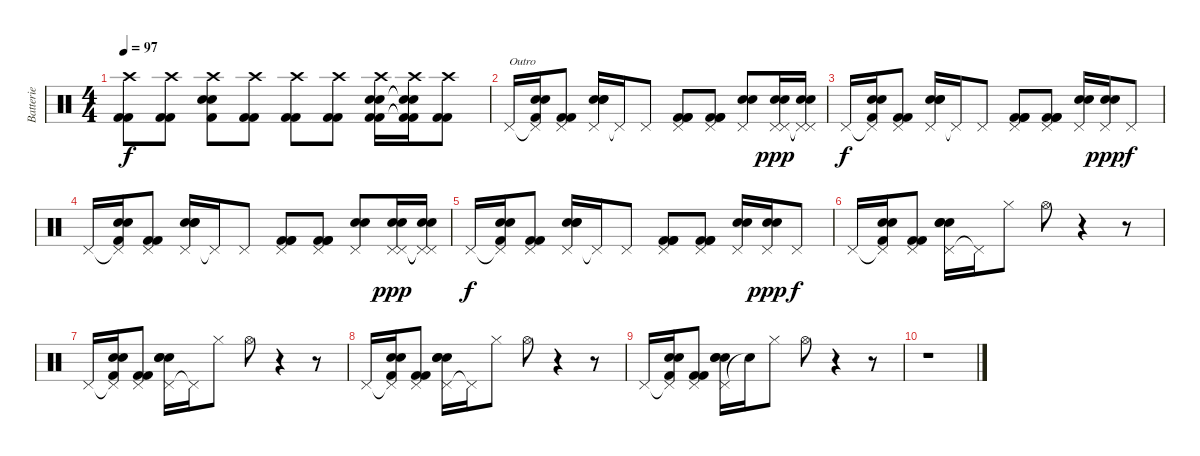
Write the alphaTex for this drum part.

\track ("Batterie" "Batterie") {instrument percussion}
\staff {score}
\articulation defaults
\ts (4 4)
\tempo 97
\clef neutral
\ks c
("Crash high (hit)" "Kick (hit) 2" "Kick (hit) 2").8{dy f} ("Crash high (hit)" "Kick (hit) 2" "Kick (hit) 2").8 ("Crash high (hit)" "Snare (hit) 2" "Snare (hit) 2" "Kick (hit) 2").8 ("Crash high (hit)" "Kick (hit) 2" "Kick (hit) 2").8 ("Crash high (hit)" "Kick (hit) 2" "Kick (hit) 2").8 ("Crash high (hit)" "Kick (hit) 2" "Kick (hit) 2").8 ("Crash high (hit)" "Snare (hit) 2" "Snare (hit) 2" "Kick (hit) 2" "Kick (hit) 2").16 ("Crash high (hit)" "Snare (hit) 2"{t} "Snare (hit) 2"{t} "Kick (hit) 2"{t} "Kick (hit) 2"{t}).16 ("Crash high (hit)" "Kick (hit) 2" "Kick (hit) 2").8 |
"Pedal Hi-Hat (hit)".16{txt "Outro"} ("Pedal Hi-Hat (hit)"{t} "Snare (hit) 2" "Snare (hit) 2" "Kick (hit) 2").16 ("Pedal Hi-Hat (hit)" "Kick (hit) 2" "Kick (hit) 2").8 ("Pedal Hi-Hat (hit)" "Snare (hit) 2" "Snare (hit) 2" "Snare (hit) 2").16 "Pedal Hi-Hat (hit)"{t}.16 "Pedal Hi-Hat (hit)".8 ("Pedal Hi-Hat (hit)" "Kick (hit) 2" "Kick (hit) 2" "Kick (hit) 2").8 ("Pedal Hi-Hat (hit)" "Kick (hit) 2" "Kick (hit) 2" "Kick (hit) 2").8 ("Pedal Hi-Hat (hit)" "Snare (hit) 2" "Snare (hit) 2").8 ("Pedal Hi-Hat (hit)" "Pedal Hi-Hat (hit)" "Snare (hit) 2" "Snare (hit) 2").16{dy ppp} ("Pedal Hi-Hat (hit)"{t} "Pedal Hi-Hat (hit)"{t} "Snare (hit) 2" "Snare (hit) 2").16 |
"Pedal Hi-Hat (hit)".16{dy f} ("Pedal Hi-Hat (hit)"{t} "Snare (hit) 2" "Snare (hit) 2" "Kick (hit) 2").16 ("Pedal Hi-Hat (hit)" "Kick (hit) 2" "Kick (hit) 2").8 ("Pedal Hi-Hat (hit)" "Snare (hit) 2" "Snare (hit) 2" "Snare (hit) 2").16 "Pedal Hi-Hat (hit)"{t}.16 "Pedal Hi-Hat (hit)".8 ("Pedal Hi-Hat (hit)" "Kick (hit) 2" "Kick (hit) 2" "Kick (hit) 2").8 ("Pedal Hi-Hat (hit)" "Kick (hit) 2" "Kick (hit) 2" "Kick (hit) 2").8 ("Pedal Hi-Hat (hit)" "Snare (hit) 2" "Snare (hit) 2").16 ("Pedal Hi-Hat (hit)" "Snare (hit) 2" "Snare (hit) 2").16{dy ppp} "Pedal Hi-Hat (hit)".8{dy f} |
"Pedal Hi-Hat (hit)".16 ("Pedal Hi-Hat (hit)"{t} "Snare (hit) 2" "Snare (hit) 2" "Kick (hit) 2").16 ("Pedal Hi-Hat (hit)" "Kick (hit) 2" "Kick (hit) 2").8 ("Pedal Hi-Hat (hit)" "Snare (hit) 2" "Snare (hit) 2" "Snare (hit) 2").16 "Pedal Hi-Hat (hit)"{t}.16 "Pedal Hi-Hat (hit)".8 ("Pedal Hi-Hat (hit)" "Kick (hit) 2" "Kick (hit) 2" "Kick (hit) 2").8 ("Pedal Hi-Hat (hit)" "Kick (hit) 2" "Kick (hit) 2" "Kick (hit) 2").8 ("Pedal Hi-Hat (hit)" "Snare (hit) 2" "Snare (hit) 2").8 ("Pedal Hi-Hat (hit)" "Pedal Hi-Hat (hit)" "Snare (hit) 2" "Snare (hit) 2").16{dy ppp} ("Pedal Hi-Hat (hit)"{t} "Pedal Hi-Hat (hit)"{t} "Snare (hit) 2" "Snare (hit) 2").16 |
"Pedal Hi-Hat (hit)".16{dy f} ("Pedal Hi-Hat (hit)"{t} "Snare (hit) 2" "Snare (hit) 2" "Kick (hit) 2").16 ("Pedal Hi-Hat (hit)" "Kick (hit) 2" "Kick (hit) 2").8 ("Pedal Hi-Hat (hit)" "Snare (hit) 2" "Snare (hit) 2" "Snare (hit) 2").16 "Pedal Hi-Hat (hit)"{t}.16 "Pedal Hi-Hat (hit)".8 ("Pedal Hi-Hat (hit)" "Kick (hit) 2" "Kick (hit) 2" "Kick (hit) 2").8 ("Pedal Hi-Hat (hit)" "Kick (hit) 2" "Kick (hit) 2" "Kick (hit) 2").8 ("Pedal Hi-Hat (hit)" "Snare (hit) 2" "Snare (hit) 2").16 ("Pedal Hi-Hat (hit)" "Snare (hit) 2" "Snare (hit) 2").16{dy ppp} "Pedal Hi-Hat (hit)".8{dy f} |
"Pedal Hi-Hat (hit)".16 ("Pedal Hi-Hat (hit)"{t} "Snare (hit) 2" "Snare (hit) 2" "Kick (hit) 2").16 ("Pedal Hi-Hat (hit)" "Kick (hit) 2" "Kick (hit) 2").8 ("Pedal Hi-Hat (hit)" "Snare (hit) 2" "Snare (hit) 2" "Snare (hit) 2").16 "Pedal Hi-Hat (hit)"{t}.16 "Hi-Hat (closed)".8 "Hi-Hat (open)".8 r.4 r.8 |
"Pedal Hi-Hat (hit)".16 ("Pedal Hi-Hat (hit)"{t} "Snare (hit) 2" "Snare (hit) 2" "Kick (hit) 2").16 ("Pedal Hi-Hat (hit)" "Kick (hit) 2" "Kick (hit) 2").8 ("Pedal Hi-Hat (hit)" "Snare (hit) 2" "Snare (hit) 2" "Snare (hit) 2").16 "Pedal Hi-Hat (hit)"{t}.16 "Hi-Hat (closed)".8 "Hi-Hat (open)".8 r.4 r.8 |
"Pedal Hi-Hat (hit)".16 ("Pedal Hi-Hat (hit)"{t} "Snare (hit) 2" "Snare (hit) 2" "Kick (hit) 2").16 ("Pedal Hi-Hat (hit)" "Kick (hit) 2" "Kick (hit) 2").8 ("Pedal Hi-Hat (hit)" "Snare (hit) 2" "Snare (hit) 2" "Snare (hit) 2").16 "Pedal Hi-Hat (hit)"{t}.16 "Hi-Hat (closed)".8 "Hi-Hat (open)".8 r.4 r.8 |
"Pedal Hi-Hat (hit)".16 ("Pedal Hi-Hat (hit)"{t} "Snare (hit) 2" "Snare (hit) 2" "Kick (hit) 2").16 ("Pedal Hi-Hat (hit)" "Kick (hit) 2" "Kick (hit) 2").8 ("Pedal Hi-Hat (hit)" "Snare (hit) 2" "Snare (hit) 2" "Snare (hit) 2").16 "Snare (hit)"{t}.16 "Hi-Hat (closed)".8 "Hi-Hat (open)".8 r.4 r.8 |
r.1
